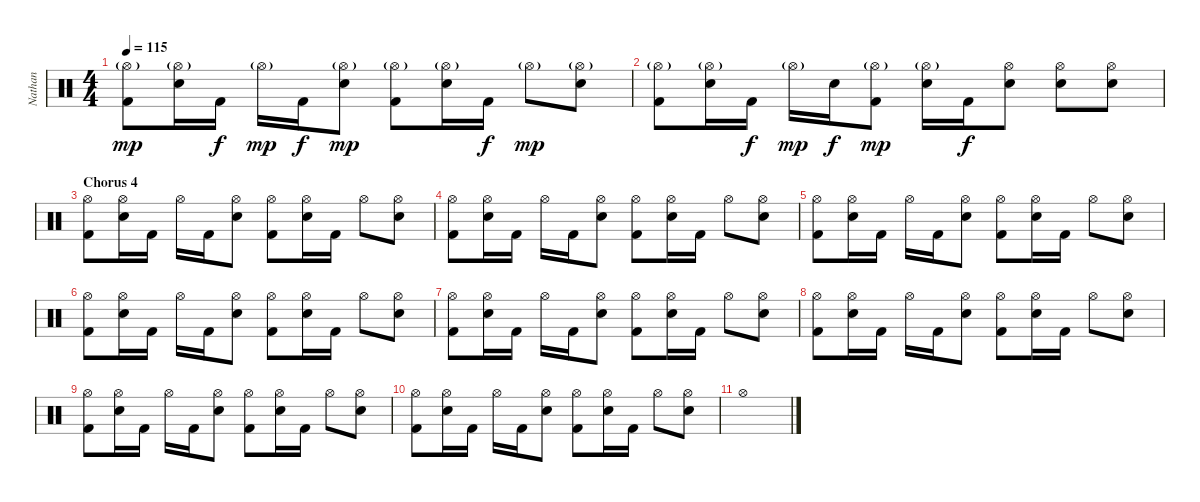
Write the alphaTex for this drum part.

\track ("Nathan" "Nathan") {instrument percussion}
\staff {score}
\articulation defaults
\ts (4 4)
\tempo 115
\clef neutral
\ks c
("Hi-Hat (open)"{g} "Kick (hit) 2").8{dy mp} ("Hi-Hat (open)"{g} "Electric Snare (hit)").16 "Kick (hit) 2".16{dy f} "Hi-Hat (open)"{g}.16{dy mp} "Kick (hit) 2".16{dy f} ("Hi-Hat (open)"{g} "Electric Snare (hit)").8{dy mp} ("Hi-Hat (open)"{g} "Kick (hit) 2").8 ("Hi-Hat (open)"{g} "Electric Snare (hit)").16 "Kick (hit) 2".16{dy f} "Hi-Hat (open)"{g}.8{dy mp} ("Hi-Hat (open)"{g} "Electric Snare (hit)").8 |
("Hi-Hat (open)"{g} "Kick (hit) 2").8 ("Hi-Hat (open)"{g} "Electric Snare (hit)").16 "Kick (hit) 2".16{dy f} "Hi-Hat (open)"{g}.16{dy mp} "Electric Snare (hit)".16{dy f} ("Hi-Hat (open)"{g} "Kick (hit) 2").8{dy mp} ("Hi-Hat (open)"{g} "Electric Snare (hit)").16 "Kick (hit) 2".16{dy f} ("Hi-Hat (open)" "Electric Snare (hit)").8 ("Hi-Hat (open)" "Electric Snare (hit)").8 ("Hi-Hat (open)" "Electric Snare (hit)").8 |
\section ("" "Chorus 4")
("Hi-Hat (open)" "Kick (hit) 2").8 ("Hi-Hat (open)" "Electric Snare (hit)").16 "Kick (hit) 2".16 "Hi-Hat (open)".16 "Kick (hit) 2".16 ("Hi-Hat (open)" "Electric Snare (hit)").8 ("Hi-Hat (open)" "Kick (hit) 2").8 ("Hi-Hat (open)" "Electric Snare (hit)").16 "Kick (hit) 2".16 "Hi-Hat (open)".8 ("Hi-Hat (open)" "Electric Snare (hit)").8 |
("Hi-Hat (open)" "Kick (hit) 2").8 ("Hi-Hat (open)" "Electric Snare (hit)").16 "Kick (hit) 2".16 "Hi-Hat (open)".16 "Kick (hit) 2".16 ("Hi-Hat (open)" "Electric Snare (hit)").8 ("Hi-Hat (open)" "Kick (hit) 2").8 ("Hi-Hat (open)" "Electric Snare (hit)").16 "Kick (hit) 2".16 "Hi-Hat (open)".8 ("Hi-Hat (open)" "Electric Snare (hit)").8 |
("Hi-Hat (open)" "Kick (hit) 2").8 ("Hi-Hat (open)" "Electric Snare (hit)").16 "Kick (hit) 2".16 "Hi-Hat (open)".16 "Kick (hit) 2".16 ("Hi-Hat (open)" "Electric Snare (hit)").8 ("Hi-Hat (open)" "Kick (hit) 2").8 ("Hi-Hat (open)" "Electric Snare (hit)").16 "Kick (hit) 2".16 "Hi-Hat (open)".8 ("Hi-Hat (open)" "Electric Snare (hit)").8 |
("Hi-Hat (open)" "Kick (hit) 2").8 ("Hi-Hat (open)" "Electric Snare (hit)").16 "Kick (hit) 2".16 "Hi-Hat (open)".16 "Kick (hit) 2".16 ("Hi-Hat (open)" "Electric Snare (hit)").8 ("Hi-Hat (open)" "Kick (hit) 2").8 ("Hi-Hat (open)" "Electric Snare (hit)").16 "Kick (hit) 2".16 "Hi-Hat (open)".8 ("Hi-Hat (open)" "Electric Snare (hit)").8 |
("Hi-Hat (open)" "Kick (hit) 2").8 ("Hi-Hat (open)" "Electric Snare (hit)").16 "Kick (hit) 2".16 "Hi-Hat (open)".16 "Kick (hit) 2".16 ("Hi-Hat (open)" "Electric Snare (hit)").8 ("Hi-Hat (open)" "Kick (hit) 2").8 ("Hi-Hat (open)" "Electric Snare (hit)").16 "Kick (hit) 2".16 "Hi-Hat (open)".8 ("Hi-Hat (open)" "Electric Snare (hit)").8 |
("Hi-Hat (open)" "Kick (hit) 2").8 ("Hi-Hat (open)" "Electric Snare (hit)").16 "Kick (hit) 2".16 "Hi-Hat (open)".16 "Kick (hit) 2".16 ("Hi-Hat (open)" "Electric Snare (hit)").8 ("Hi-Hat (open)" "Kick (hit) 2").8 ("Hi-Hat (open)" "Electric Snare (hit)").16 "Kick (hit) 2".16 "Hi-Hat (open)".8 ("Hi-Hat (open)" "Electric Snare (hit)").8 |
("Hi-Hat (open)" "Kick (hit) 2").8 ("Hi-Hat (open)" "Electric Snare (hit)").16 "Kick (hit) 2".16 "Hi-Hat (open)".16 "Kick (hit) 2".16 ("Hi-Hat (open)" "Electric Snare (hit)").8 ("Hi-Hat (open)" "Kick (hit) 2").8 ("Hi-Hat (open)" "Electric Snare (hit)").16 "Kick (hit) 2".16 "Hi-Hat (open)".8 ("Hi-Hat (open)" "Electric Snare (hit)").8 |
("Hi-Hat (open)" "Kick (hit) 2").8 ("Hi-Hat (open)" "Electric Snare (hit)").16 "Kick (hit) 2".16 "Hi-Hat (open)".16 "Kick (hit) 2".16 ("Hi-Hat (open)" "Electric Snare (hit)").8 ("Hi-Hat (open)" "Kick (hit) 2").8 ("Hi-Hat (open)" "Electric Snare (hit)").16 "Kick (hit) 2".16 "Hi-Hat (open)".8 ("Hi-Hat (open)" "Electric Snare (hit)").8 |
"Hi-Hat (open)".1
